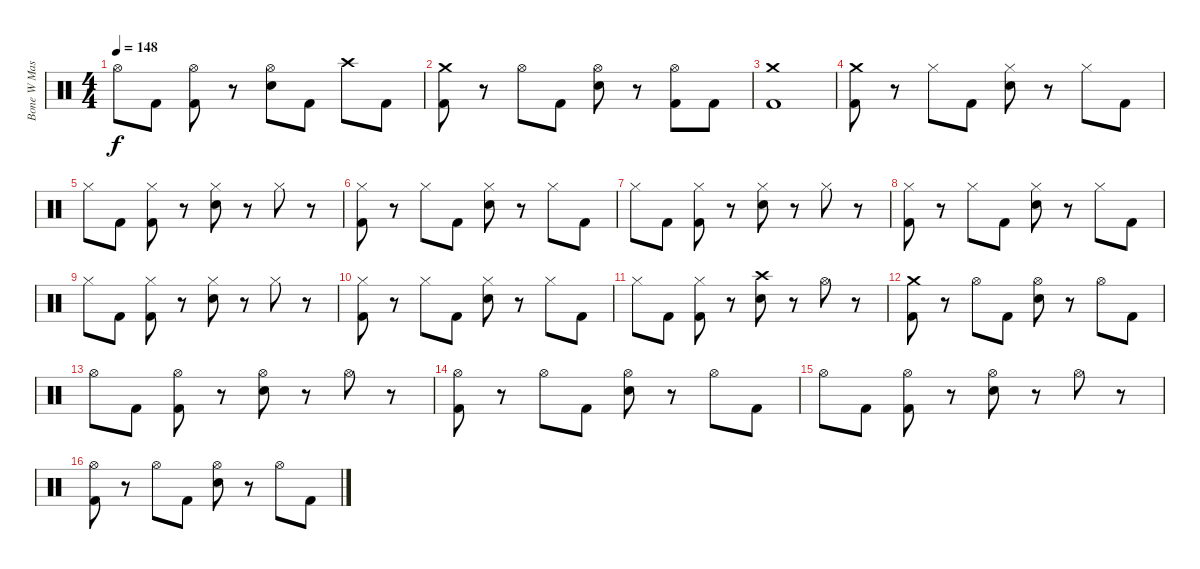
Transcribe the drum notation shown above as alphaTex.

\track ("Bone W Mashine" "Bone W Mas") {instrument percussion}
\staff {score}
\articulation defaults
\ts (4 4)
\tempo 148
\clef neutral
\ks c "Hi-Hat (open)".8{dy f} "Kick (hit) 2".8
("Hi-Hat (open)" "Kick (hit) 2").8 r.8 ("Hi-Hat (open)" "Electric Snare (hit)").8 "Kick (hit) 2".8 "Crash high (hit)".8 "Kick (hit) 2".8 |
("Crash medium (hit)" "Kick (hit) 2").8 r.8 "Hi-Hat (open)".8 "Kick (hit) 2".8 ("Hi-Hat (open)" "Electric Snare (hit)").8 r.8 ("Hi-Hat (open)" "Kick (hit) 2").8 "Kick (hit) 2".8 |
("Crash medium (hit)" "Kick (hit) 2").1 |
("Crash medium (hit)" "Kick (hit) 2").8 r.8 "Hi-Hat (closed)".8 "Kick (hit) 2".8 ("Hi-Hat (closed)" "Electric Snare (hit)").8 r.8 "Hi-Hat (closed)".8 "Kick (hit) 2".8 |
"Hi-Hat (closed)".8 "Kick (hit) 2".8 ("Hi-Hat (closed)" "Kick (hit) 2").8 r.8 ("Hi-Hat (closed)" "Electric Snare (hit)").8 r.8 "Hi-Hat (closed)".8 r.8 |
("Hi-Hat (closed)" "Kick (hit) 2").8 r.8 "Hi-Hat (closed)".8 "Kick (hit) 2".8 ("Hi-Hat (closed)" "Electric Snare (hit)").8 r.8 "Hi-Hat (closed)".8 "Kick (hit) 2".8 |
"Hi-Hat (closed)".8 "Kick (hit) 2".8 ("Hi-Hat (closed)" "Kick (hit) 2").8 r.8 ("Hi-Hat (closed)" "Electric Snare (hit)").8 r.8 "Hi-Hat (closed)".8 r.8 |
("Hi-Hat (closed)" "Kick (hit) 2").8 r.8 "Hi-Hat (closed)".8 "Kick (hit) 2".8 ("Hi-Hat (closed)" "Electric Snare (hit)").8 r.8 "Hi-Hat (closed)".8 "Kick (hit) 2".8 |
"Hi-Hat (closed)".8 "Kick (hit) 2".8 ("Hi-Hat (closed)" "Kick (hit) 2").8 r.8 ("Hi-Hat (closed)" "Electric Snare (hit)").8 r.8 "Hi-Hat (closed)".8 r.8 |
("Hi-Hat (closed)" "Kick (hit) 2").8 r.8 "Hi-Hat (closed)".8 "Kick (hit) 2".8 ("Hi-Hat (closed)" "Electric Snare (hit)").8 r.8 "Hi-Hat (closed)".8 "Kick (hit) 2".8 |
"Hi-Hat (closed)".8 "Kick (hit) 2".8 ("Hi-Hat (closed)" "Kick (hit) 2").8 r.8 ("Crash high (hit)" "Electric Snare (hit)").8 r.8 "Hi-Hat (open)".8 r.8 |
("Crash medium (hit)" "Kick (hit) 2").8 r.8 "Hi-Hat (open)".8 "Kick (hit) 2".8 ("Hi-Hat (open)" "Electric Snare (hit)").8 r.8 "Hi-Hat (open)".8 "Kick (hit) 2".8 |
"Hi-Hat (open)".8 "Kick (hit) 2".8 ("Hi-Hat (open)" "Kick (hit) 2").8 r.8 ("Hi-Hat (open)" "Electric Snare (hit)").8 r.8 "Hi-Hat (open)".8 r.8 |
("Hi-Hat (open)" "Kick (hit) 2").8 r.8 "Hi-Hat (open)".8 "Kick (hit) 2".8 ("Hi-Hat (open)" "Electric Snare (hit)").8 r.8 "Hi-Hat (open)".8 "Kick (hit) 2".8 |
"Hi-Hat (open)".8 "Kick (hit) 2".8 ("Hi-Hat (open)" "Kick (hit) 2").8 r.8 ("Hi-Hat (open)" "Electric Snare (hit)").8 r.8 "Hi-Hat (open)".8 r.8 |
("Hi-Hat (open)" "Kick (hit) 2").8 r.8 "Hi-Hat (open)".8 "Kick (hit) 2".8 ("Hi-Hat (open)" "Electric Snare (hit)").8 r.8 "Hi-Hat (open)".8 "Kick (hit) 2".8
